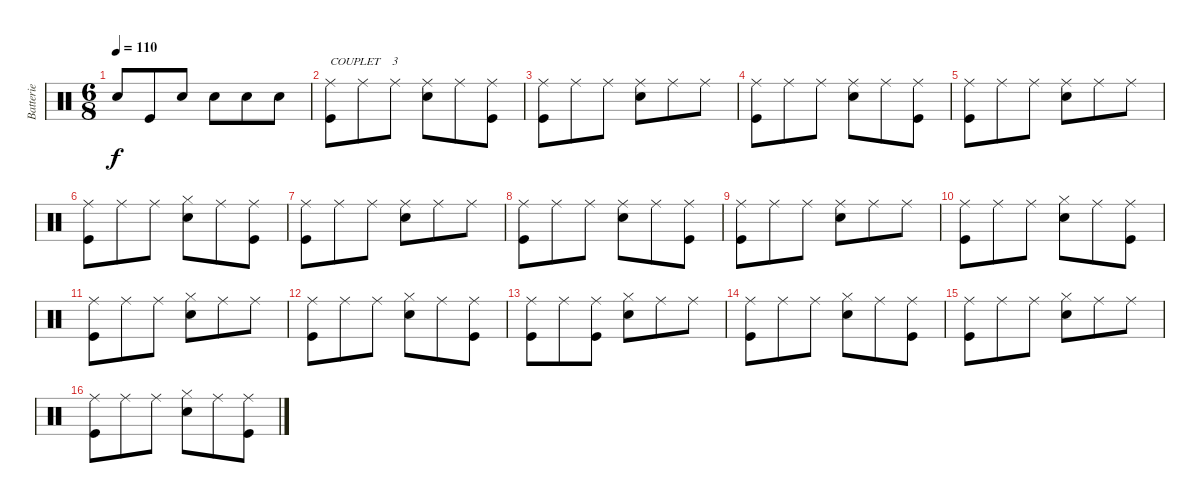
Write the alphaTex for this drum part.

\track ("Batterie" "Batterie") {instrument percussion}
\staff {score}
\articulation defaults
\ts (6 8)
\tempo 110
\clef neutral
\ks c "Snare (hit) 2".8{dy f} "Kick (hit)".8 "Snare (hit) 2".8 "Snare (hit) 2".8 "Snare (hit) 2".8 "Snare (hit) 2".8
|
("Ride (middle)" "Kick (hit)").8{txt "COUPLET    3"} "Ride (middle)".8 "Ride (middle)".8 ("Ride (middle)" "Snare (hit) 2").8 "Ride (middle)".8 ("Ride (middle)" "Kick (hit)").8 |
("Ride (middle)" "Kick (hit)").8 "Ride (middle)".8 "Ride (middle)".8 ("Ride (middle)" "Snare (hit) 2").8 "Ride (middle)".8 "Ride (middle)".8 |
("Ride (middle)" "Kick (hit)").8 "Ride (middle)".8 "Ride (middle)".8 ("Ride (middle)" "Snare (hit) 2").8 "Ride (middle)".8 ("Ride (middle)" "Kick (hit)").8 |
("Ride (middle)" "Kick (hit)").8 "Ride (middle)".8 "Ride (middle)".8 ("Ride (middle)" "Snare (hit) 2").8 "Ride (middle)".8 "Ride (middle)".8 |
("Ride (middle)" "Kick (hit)").8 "Ride (middle)".8 "Ride (middle)".8 ("Hi-Hat (closed)" "Snare (hit) 2").8 "Ride (middle)".8 ("Ride (middle)" "Kick (hit)").8 |
("Ride (middle)" "Kick (hit)").8 "Ride (middle)".8 "Ride (middle)".8 ("Ride (middle)" "Snare (hit) 2").8 "Ride (middle)".8 "Ride (middle)".8 |
("Ride (middle)" "Kick (hit)").8 "Ride (middle)".8 "Ride (middle)".8 ("Ride (middle)" "Snare (hit) 2").8 "Ride (middle)".8 ("Ride (middle)" "Kick (hit)").8 |
("Ride (middle)" "Kick (hit)").8 "Ride (middle)".8 "Ride (middle)".8 ("Ride (middle)" "Snare (hit) 2").8 "Ride (middle)".8 "Ride (middle)".8 |
("Ride (middle)" "Kick (hit)").8 "Ride (middle)".8 "Ride (middle)".8 ("Hi-Hat (closed)" "Snare (hit) 2").8 "Ride (middle)".8 ("Ride (middle)" "Kick (hit)").8 |
("Ride (middle)" "Kick (hit)").8 "Ride (middle)".8 "Ride (middle)".8 ("Hi-Hat (closed)" "Snare (hit) 2").8 "Ride (middle)".8 "Ride (middle)".8 |
("Ride (middle)" "Kick (hit)").8 "Ride (middle)".8 "Ride (middle)".8 ("Hi-Hat (closed)" "Snare (hit) 2").8 "Ride (middle)".8 ("Ride (middle)" "Kick (hit)").8 |
("Ride (middle)" "Kick (hit)").8 "Ride (middle)".8 ("Ride (middle)" "Kick (hit)").8 ("Hi-Hat (closed)" "Snare (hit) 2").8 "Ride (middle)".8 "Ride (middle)".8 |
("Ride (middle)" "Kick (hit)").8 "Ride (middle)".8 "Ride (middle)".8 ("Hi-Hat (closed)" "Snare (hit) 2").8 "Ride (middle)".8 ("Ride (middle)" "Kick (hit)").8 |
("Ride (middle)" "Kick (hit)").8 "Ride (middle)".8 "Ride (middle)".8 ("Hi-Hat (closed)" "Snare (hit) 2").8 "Ride (middle)".8 "Ride (middle)".8 |
("Ride (middle)" "Kick (hit)").8 "Ride (middle)".8 "Ride (middle)".8 ("Hi-Hat (closed)" "Snare (hit) 2").8 "Ride (middle)".8 ("Ride (middle)" "Kick (hit)").8
